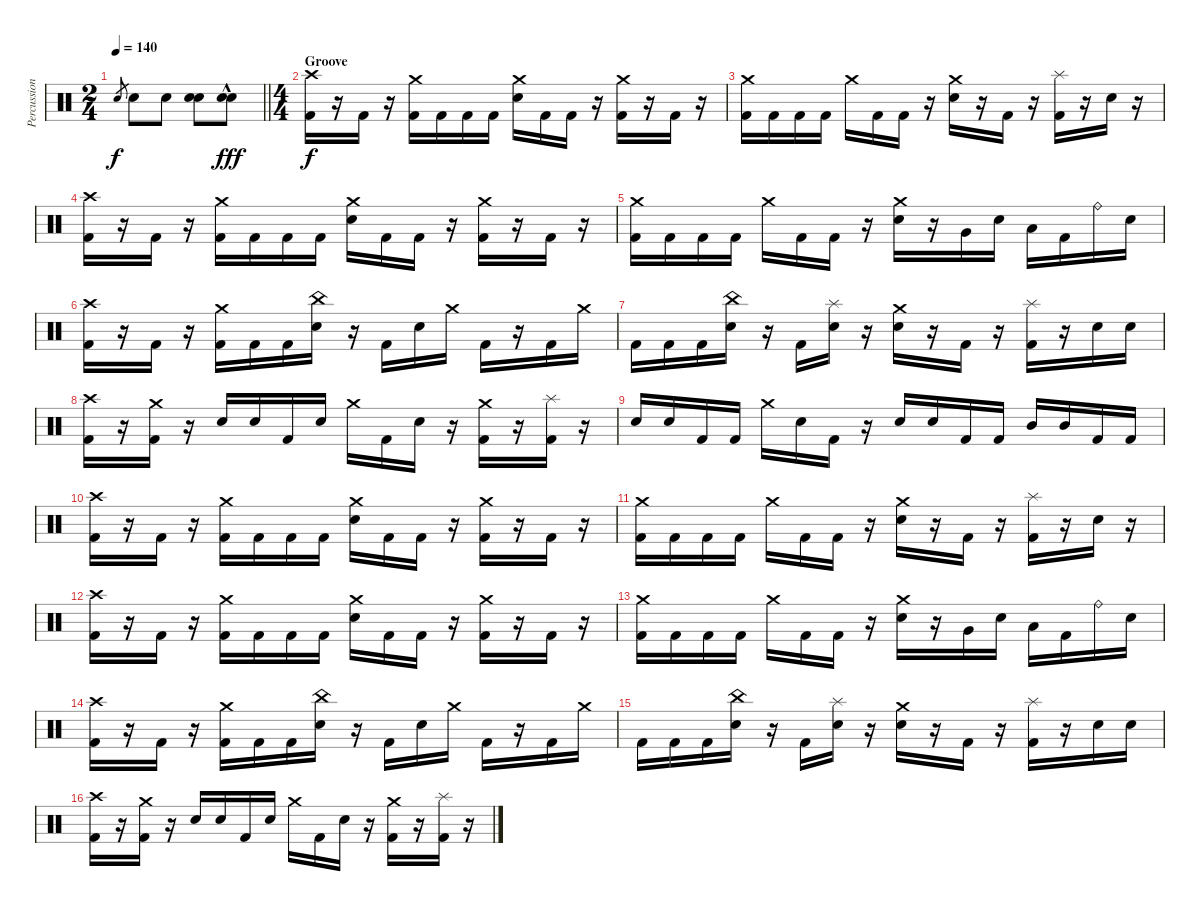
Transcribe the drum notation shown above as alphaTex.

\track ("Percussion" "Percussion") {instrument percussion}
\staff {score}
\articulation defaults
\ts (2 4)
\tempo 140
\clef neutral
\barLineRight lightlight
\ks c "Electric Snare (hit)".8{gr dy f} "Electric Snare (hit)".8 "Electric Snare (hit)".8
("Electric Snare (hit)" "Snare (hit) 2").8 ("Electric Snare (hit)"{hac} "Snare (hit) 2").8{dy fff} |
\ts (4 4)
\section ("" "Groove")
("Crash high (hit)" "Kick (hit) 2").16{dy f} r.16 "Kick (hit) 2".16 r.16 ("Crash medium (hit)" "Kick (hit) 2").16 "Kick (hit) 2".16 "Kick (hit) 2".16 "Kick (hit) 2".16 ("Crash medium (hit)" "Electric Snare (hit)").16 "Kick (hit) 2".16 "Kick (hit) 2".16 r.16 ("Crash medium (hit)" "Kick (hit) 2").16 r.16 "Kick (hit) 2".16 r.16 |
("Crash medium (hit)" "Kick (hit) 2").16 "Kick (hit) 2".16 "Kick (hit) 2".16 "Kick (hit) 2".16 "Crash medium (hit)".16 "Kick (hit) 2".16 "Kick (hit) 2".16 r.16 ("Crash medium (hit)" "Electric Snare (hit)").16 r.16 "Kick (hit) 2".16 r.16 ("Splash (hit)" "Kick (hit) 2").16 r.16 "Electric Snare (hit)".16 r.16 |
("Crash high (hit)" "Kick (hit) 2").16 r.16 "Kick (hit) 2".16 r.16 ("Crash medium (hit)" "Kick (hit) 2").16 "Kick (hit) 2".16 "Kick (hit) 2".16 "Kick (hit) 2".16 ("Crash medium (hit)" "Electric Snare (hit)").16 "Kick (hit) 2".16 "Kick (hit) 2".16 r.16 ("Crash medium (hit)" "Kick (hit) 2").16 r.16 "Kick (hit) 2".16 r.16 |
("Crash medium (hit)" "Kick (hit) 2").16 "Kick (hit) 2".16 "Kick (hit) 2".16 "Kick (hit) 2".16 "Crash medium (hit)".16 "Kick (hit) 2".16 "Kick (hit) 2".16 r.16 ("Crash medium (hit)" "Electric Snare (hit)").16 r.16 "Very Low Tom (hit)".16 "Electric Snare (hit)".16 "Low Tom (hit)".16 "Kick (hit) 2".16 "Ride (bell)".16 "Electric Snare (hit)".16 |
("Crash high (hit)" "Kick (hit) 2").16 r.16 "Kick (hit) 2".16 r.16 ("Crash medium (hit)" "Kick (hit) 2").16 "Kick (hit) 2".16 "Kick (hit) 2".16 ("China (hit)" "Electric Snare (hit)").16 r.16 "Kick (hit) 2".16 "Electric Snare (hit)".16 "Crash medium (hit)".16 "Kick (hit) 2".16 r.16 "Kick (hit) 2".16 "Crash medium (hit)".16 |
"Kick (hit) 2".16 "Kick (hit) 2".16 "Kick (hit) 2".16 ("China (hit)" "Electric Snare (hit)").16 r.16 "Kick (hit) 2".16 ("Splash (hit)" "Electric Snare (hit)").16 r.16 ("Crash medium (hit)" "Electric Snare (hit)").16 r.16 "Kick (hit) 2".16 r.16 ("Splash (hit)" "Kick (hit) 2").16 r.16 "Electric Snare (hit)".16 "Electric Snare (hit)".16 |
("Crash high (hit)" "Kick (hit) 2").16 r.16 ("Crash medium (hit)" "Kick (hit) 2").16 r.16 "Electric Snare (hit)".16 "Electric Snare (hit)".16 "Kick (hit) 2".16 "Electric Snare (hit)".16 "Crash medium (hit)".16 "Kick (hit) 2".16 "Electric Snare (hit)".16 r.16 ("Crash medium (hit)" "Kick (hit) 2").16 r.16 ("Splash (hit)" "Kick (hit) 2").16 r.16 |
"Electric Snare (hit)".16 "Electric Snare (hit)".16 "Kick (hit) 2".16 "Kick (hit) 2".16 "Crash medium (hit)".16 "Electric Snare (hit)".16 "Kick (hit) 2".16 r.16 "Electric Snare (hit)".16 "Electric Snare (hit)".16 "Kick (hit) 2".16 "Kick (hit) 2".16 "Mid Tom (hit)".16 "Mid Tom (hit)".16 "Kick (hit) 2".16 "Kick (hit) 2".16 |
("Crash high (hit)" "Kick (hit) 2").16 r.16 "Kick (hit) 2".16 r.16 ("Crash medium (hit)" "Kick (hit) 2").16 "Kick (hit) 2".16 "Kick (hit) 2".16 "Kick (hit) 2".16 ("Crash medium (hit)" "Electric Snare (hit)").16 "Kick (hit) 2".16 "Kick (hit) 2".16 r.16 ("Crash medium (hit)" "Kick (hit) 2").16 r.16 "Kick (hit) 2".16 r.16 |
("Crash medium (hit)" "Kick (hit) 2").16 "Kick (hit) 2".16 "Kick (hit) 2".16 "Kick (hit) 2".16 "Crash medium (hit)".16 "Kick (hit) 2".16 "Kick (hit) 2".16 r.16 ("Crash medium (hit)" "Electric Snare (hit)").16 r.16 "Kick (hit) 2".16 r.16 ("Splash (hit)" "Kick (hit) 2").16 r.16 "Electric Snare (hit)".16 r.16 |
("Crash high (hit)" "Kick (hit) 2").16 r.16 "Kick (hit) 2".16 r.16 ("Crash medium (hit)" "Kick (hit) 2").16 "Kick (hit) 2".16 "Kick (hit) 2".16 "Kick (hit) 2".16 ("Crash medium (hit)" "Electric Snare (hit)").16 "Kick (hit) 2".16 "Kick (hit) 2".16 r.16 ("Crash medium (hit)" "Kick (hit) 2").16 r.16 "Kick (hit) 2".16 r.16 |
("Crash medium (hit)" "Kick (hit) 2").16 "Kick (hit) 2".16 "Kick (hit) 2".16 "Kick (hit) 2".16 "Crash medium (hit)".16 "Kick (hit) 2".16 "Kick (hit) 2".16 r.16 ("Crash medium (hit)" "Electric Snare (hit)").16 r.16 "Very Low Tom (hit)".16 "Electric Snare (hit)".16 "Low Tom (hit)".16 "Kick (hit) 2".16 "Ride (bell)".16 "Electric Snare (hit)".16 |
("Crash high (hit)" "Kick (hit) 2").16 r.16 "Kick (hit) 2".16 r.16 ("Crash medium (hit)" "Kick (hit) 2").16 "Kick (hit) 2".16 "Kick (hit) 2".16 ("China (hit)" "Electric Snare (hit)").16 r.16 "Kick (hit) 2".16 "Electric Snare (hit)".16 "Crash medium (hit)".16 "Kick (hit) 2".16 r.16 "Kick (hit) 2".16 "Crash medium (hit)".16 |
"Kick (hit) 2".16 "Kick (hit) 2".16 "Kick (hit) 2".16 ("China (hit)" "Electric Snare (hit)").16 r.16 "Kick (hit) 2".16 ("Splash (hit)" "Electric Snare (hit)").16 r.16 ("Crash medium (hit)" "Electric Snare (hit)").16 r.16 "Kick (hit) 2".16 r.16 ("Splash (hit)" "Kick (hit) 2").16 r.16 "Electric Snare (hit)".16 "Electric Snare (hit)".16 |
("Crash high (hit)" "Kick (hit) 2").16 r.16 ("Crash medium (hit)" "Kick (hit) 2").16 r.16 "Electric Snare (hit)".16 "Electric Snare (hit)".16 "Kick (hit) 2".16 "Electric Snare (hit)".16 "Crash medium (hit)".16 "Kick (hit) 2".16 "Electric Snare (hit)".16 r.16 ("Crash medium (hit)" "Kick (hit) 2").16 r.16 ("Splash (hit)" "Kick (hit) 2").16 r.16
